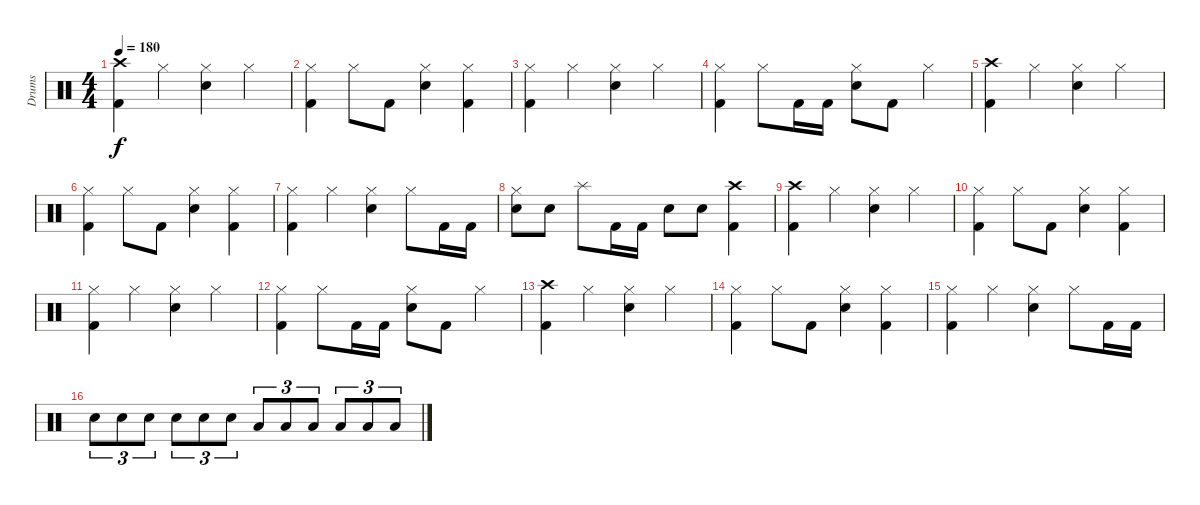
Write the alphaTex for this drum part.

\track ("Drums" "Drums") {instrument percussion}
\staff {score}
\articulation defaults
\ts (4 4)
\tempo 180
\clef neutral
\ks c
("Crash high (hit)" "Kick (hit) 2").4{dy f} "Hi-Hat (closed)".4 ("Hi-Hat (closed)" "Electric Snare (hit)").4 "Hi-Hat (closed)".4 |
("Hi-Hat (closed)" "Kick (hit) 2").4 "Hi-Hat (closed)".8 "Kick (hit) 2".8 ("Hi-Hat (closed)" "Electric Snare (hit)").4 ("Hi-Hat (closed)" "Kick (hit) 2").4 |
("Hi-Hat (closed)" "Kick (hit) 2").4 "Hi-Hat (closed)".4 ("Hi-Hat (closed)" "Electric Snare (hit)").4 "Hi-Hat (closed)".4 |
("Hi-Hat (closed)" "Kick (hit) 2").4 "Hi-Hat (closed)".8 "Kick (hit) 2".16 "Kick (hit) 2".16 ("Hi-Hat (closed)" "Electric Snare (hit)").8 "Kick (hit) 2".8 "Hi-Hat (closed)".4 |
("Crash high (hit)" "Kick (hit) 2").4 "Hi-Hat (closed)".4 ("Hi-Hat (closed)" "Electric Snare (hit)").4 "Hi-Hat (closed)".4 |
("Hi-Hat (closed)" "Kick (hit) 2").4 "Hi-Hat (closed)".8 "Kick (hit) 2".8 ("Hi-Hat (closed)" "Electric Snare (hit)").4 ("Hi-Hat (closed)" "Kick (hit) 2").4 |
("Hi-Hat (closed)" "Kick (hit) 2").4 "Hi-Hat (closed)".4 ("Hi-Hat (closed)" "Electric Snare (hit)").4 "Hi-Hat (closed)".8 "Kick (hit) 2".16 "Kick (hit) 2".16 |
("Hi-Hat (closed)" "Electric Snare (hit)").8 "Electric Snare (hit)".8 "Splash (hit)".8 "Kick (hit) 2".16 "Kick (hit) 2".16 "Electric Snare (hit)".8 "Electric Snare (hit)".8 ("Crash high (hit)" "Kick (hit) 2").4 |
("Crash high (hit)" "Kick (hit) 2").4 "Hi-Hat (closed)".4 ("Hi-Hat (closed)" "Electric Snare (hit)").4 "Hi-Hat (closed)".4 |
("Hi-Hat (closed)" "Kick (hit) 2").4 "Hi-Hat (closed)".8 "Kick (hit) 2".8 ("Hi-Hat (closed)" "Electric Snare (hit)").4 ("Hi-Hat (closed)" "Kick (hit) 2").4 |
("Hi-Hat (closed)" "Kick (hit) 2").4 "Hi-Hat (closed)".4 ("Hi-Hat (closed)" "Electric Snare (hit)").4 "Hi-Hat (closed)".4 |
("Hi-Hat (closed)" "Kick (hit) 2").4 "Hi-Hat (closed)".8 "Kick (hit) 2".16 "Kick (hit) 2".16 ("Hi-Hat (closed)" "Electric Snare (hit)").8 "Kick (hit) 2".8 "Hi-Hat (closed)".4 |
("Crash high (hit)" "Kick (hit) 2").4 "Hi-Hat (closed)".4 ("Hi-Hat (closed)" "Electric Snare (hit)").4 "Hi-Hat (closed)".4 |
("Hi-Hat (closed)" "Kick (hit) 2").4 "Hi-Hat (closed)".8 "Kick (hit) 2".8 ("Hi-Hat (closed)" "Electric Snare (hit)").4 ("Hi-Hat (closed)" "Kick (hit) 2").4 |
("Hi-Hat (closed)" "Kick (hit) 2").4 "Hi-Hat (closed)".4 ("Hi-Hat (closed)" "Electric Snare (hit)").4 "Hi-Hat (closed)".8 "Kick (hit) 2".16 "Kick (hit) 2".16 |
"Electric Snare (hit)".8{tu (3 2)} "Electric Snare (hit)".8{tu (3 2)} "Electric Snare (hit)".8{tu (3 2)} "Electric Snare (hit)".8{tu (3 2)} "Electric Snare (hit)".8{tu (3 2)} "Electric Snare (hit)".8{tu (3 2)} "Low Tom (hit)".8{tu (3 2)} "Low Tom (hit)".8{tu (3 2)} "Low Tom (hit)".8{tu (3 2)} "Low Tom (hit)".8{tu (3 2)} "Low Tom (hit)".8{tu (3 2)} "Low Tom (hit)".8{tu (3 2)}
